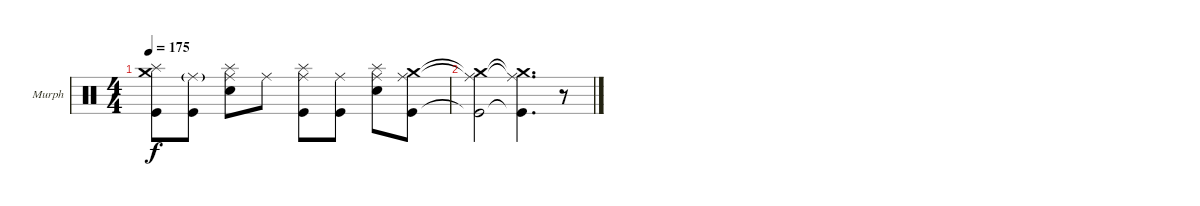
\defaultSystemsLayout 4
\bracketExtendMode groupsimilarinstruments
\firstSystemTrackNameOrientation horizontal
\otherSystemsTrackNameOrientation horizontal
\track ("Murph" "Murph") {instrument percussion}
\staff {score}
\articulation defaults
\ts (4 4)
\tempo 175
\clef neutral
\ks c
("Kick (hit)" "Splash (hit)" "Crash medium (hit)").8{dy f} ("Kick (hit)" "Ride (middle)"{g}).8 ("Snare (hit) 2" "Ride (middle)" "Splash (hit)").8 "Ride (middle)".8 ("Kick (hit)" "Ride (middle)" "Splash (hit)").8 ("Kick (hit)" "Ride (middle)").8 ("Snare (hit) 2" "Ride (middle)" "Splash (hit)").8 ("Kick (hit)" "Ride (middle)" "Crash medium (hit)").8 |
("Kick (hit)"{t} "Ride (middle)"{t} "Crash medium (hit)"{t}).2 ("Kick (hit)"{t} "Ride (middle)"{t} "Crash medium (hit)"{t}).4{d} r.8
